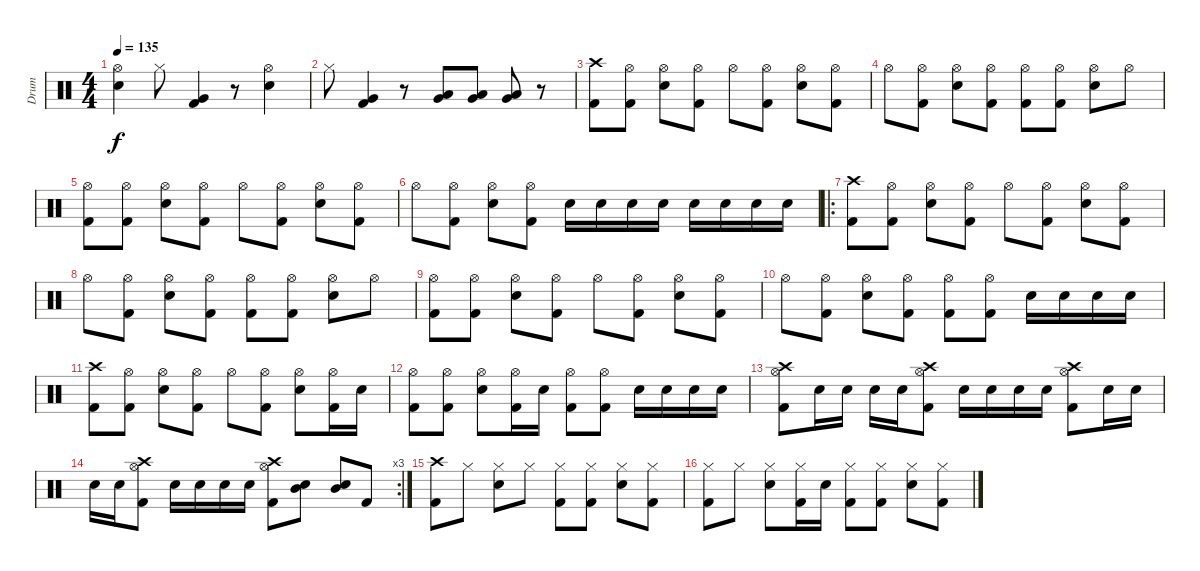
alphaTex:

\track ("Drum" "Drum") {instrument percussion}
\staff {score}
\articulation defaults
\ts (4 4)
\tempo 135
\clef neutral
\ks c
("Hi-Hat (open)" "Snare (hit) 2").4{dy f} "Hi-Hat (closed)".8 ("Very Low Tom (hit)" "Kick (hit) 2").4 r.8 ("Hi-Hat (open)" "Snare (hit) 2").4 |
"Hi-Hat (closed)".8 ("Very Low Tom (hit)" "Kick (hit) 2").4 r.8 ("Low Tom (hit)" "Very Low Tom (hit)").8 ("Low Tom (hit)" "Very Low Tom (hit)").8 ("Low Tom (hit)" "Very Low Tom (hit)").8 r.8 |
("Crash high (hit)" "Kick (hit) 2").8 ("Hi-Hat (open)" "Kick (hit) 2").8 ("Hi-Hat (open)" "Snare (hit) 2").8 ("Hi-Hat (open)" "Kick (hit) 2").8 "Hi-Hat (open)".8 ("Hi-Hat (open)" "Kick (hit) 2").8 ("Hi-Hat (open)" "Snare (hit) 2").8 ("Hi-Hat (open)" "Kick (hit) 2").8 |
"Hi-Hat (open)".8 ("Hi-Hat (open)" "Kick (hit) 2").8 ("Hi-Hat (open)" "Snare (hit) 2").8 ("Hi-Hat (open)" "Kick (hit) 2").8 ("Hi-Hat (open)" "Kick (hit) 2").8 ("Hi-Hat (open)" "Kick (hit) 2").8 ("Hi-Hat (open)" "Snare (hit) 2").8 "Hi-Hat (open)".8 |
("Hi-Hat (open)" "Kick (hit) 2").8 ("Hi-Hat (open)" "Kick (hit) 2").8 ("Hi-Hat (open)" "Snare (hit) 2").8 ("Hi-Hat (open)" "Kick (hit) 2").8 "Hi-Hat (open)".8 ("Hi-Hat (open)" "Kick (hit) 2").8 ("Hi-Hat (open)" "Snare (hit) 2").8 ("Hi-Hat (open)" "Kick (hit) 2").8 |
"Hi-Hat (open)".8 ("Hi-Hat (open)" "Kick (hit) 2").8 ("Hi-Hat (open)" "Snare (hit) 2").8 ("Hi-Hat (open)" "Kick (hit) 2").8 "Snare (hit) 2".16 "Snare (hit) 2".16 "Snare (hit) 2".16 "Snare (hit) 2".16 "Snare (hit) 2".16 "Snare (hit) 2".16 "Snare (hit) 2".16 "Snare (hit) 2".16 |
\ro
("Crash high (hit)" "Kick (hit) 2").8 ("Hi-Hat (open)" "Kick (hit) 2").8 ("Hi-Hat (open)" "Snare (hit) 2").8 ("Hi-Hat (open)" "Kick (hit) 2").8 "Hi-Hat (open)".8 ("Hi-Hat (open)" "Kick (hit) 2").8 ("Hi-Hat (open)" "Snare (hit) 2").8 ("Hi-Hat (open)" "Kick (hit) 2").8 |
"Hi-Hat (open)".8 ("Hi-Hat (open)" "Kick (hit) 2").8 ("Hi-Hat (open)" "Snare (hit) 2").8 ("Hi-Hat (open)" "Kick (hit) 2").8 ("Hi-Hat (open)" "Kick (hit) 2").8 ("Hi-Hat (open)" "Kick (hit) 2").8 ("Hi-Hat (open)" "Snare (hit) 2").8 "Hi-Hat (open)".8 |
("Hi-Hat (open)" "Kick (hit) 2").8 ("Hi-Hat (open)" "Kick (hit) 2").8 ("Hi-Hat (open)" "Snare (hit) 2").8 ("Hi-Hat (open)" "Kick (hit) 2").8 "Hi-Hat (open)".8 ("Hi-Hat (open)" "Kick (hit) 2").8 ("Hi-Hat (open)" "Snare (hit) 2").8 ("Hi-Hat (open)" "Kick (hit) 2").8 |
"Hi-Hat (open)".8 ("Hi-Hat (open)" "Kick (hit) 2").8 ("Hi-Hat (open)" "Snare (hit) 2").8 ("Hi-Hat (open)" "Kick (hit) 2").8 ("Hi-Hat (open)" "Kick (hit) 2").8 ("Hi-Hat (open)" "Kick (hit) 2").8 "Snare (hit) 2".16 "Snare (hit) 2".16 "Snare (hit) 2".16 "Snare (hit) 2".16 |
("Crash high (hit)" "Kick (hit) 2").8 ("Hi-Hat (open)" "Kick (hit) 2").8 ("Hi-Hat (open)" "Snare (hit) 2").8 ("Hi-Hat (open)" "Kick (hit) 2").8 "Hi-Hat (open)".8 ("Hi-Hat (open)" "Kick (hit) 2").8 ("Hi-Hat (open)" "Snare (hit) 2").8 ("Hi-Hat (open)" "Kick (hit) 2").16 "Snare (hit) 2".16 |
("Hi-Hat (open)" "Kick (hit) 2").8 ("Hi-Hat (open)" "Kick (hit) 2").8 ("Hi-Hat (open)" "Snare (hit) 2").8 ("Hi-Hat (open)" "Kick (hit) 2").16 "Snare (hit) 2".16 ("Hi-Hat (open)" "Kick (hit) 2").8 ("Hi-Hat (open)" "Kick (hit) 2").8 "Snare (hit) 2".16 "Snare (hit) 2".16 "Snare (hit) 2".16 "Snare (hit) 2".16 |
("Crash high (hit)" "Hi-Hat (open)" "Kick (hit) 2").8 "Snare (hit) 2".16 "Snare (hit) 2".16 "Snare (hit) 2".16 "Snare (hit) 2".16 ("Crash high (hit)" "Hi-Hat (open)" "Kick (hit) 2").8 "Snare (hit) 2".16 "Snare (hit) 2".16 "Snare (hit) 2".16 "Snare (hit) 2".16 ("Crash high (hit)" "Hi-Hat (open)" "Kick (hit) 2").8 "Snare (hit) 2".16 "Snare (hit) 2".16 |
\rc 3 "Snare (hit) 2".16 "Snare (hit) 2".16
("Crash high (hit)" "Hi-Hat (open)" "Kick (hit) 2").8 "Snare (hit) 2".16 "Snare (hit) 2".16 "Snare (hit) 2".16 "Snare (hit) 2".16 ("Crash high (hit)" "Hi-Hat (open)" "Kick (hit) 2").8 ("Mid Tom (hit)" "Snare (hit) 2").8 ("Mid Tom (hit)" "Snare (hit) 2").8 "Kick (hit) 2".8 |
("Crash high (hit)" "Kick (hit) 2").8 "Hi-Hat (closed)".8 ("Hi-Hat (closed)" "Snare (hit) 2").8 "Hi-Hat (closed)".8 ("Hi-Hat (closed)" "Kick (hit) 2").8 ("Hi-Hat (closed)" "Kick (hit) 2").8 ("Hi-Hat (closed)" "Snare (hit) 2").8 ("Hi-Hat (closed)" "Kick (hit) 2").8 |
("Hi-Hat (closed)" "Kick (hit) 2").8 "Hi-Hat (closed)".8 ("Hi-Hat (closed)" "Snare (hit) 2").8 ("Hi-Hat (closed)" "Kick (hit) 2").16 "Snare (hit) 2".16 ("Hi-Hat (closed)" "Kick (hit) 2").8 ("Hi-Hat (closed)" "Kick (hit) 2").8 ("Hi-Hat (closed)" "Snare (hit) 2").8 ("Hi-Hat (closed)" "Kick (hit) 2").8
